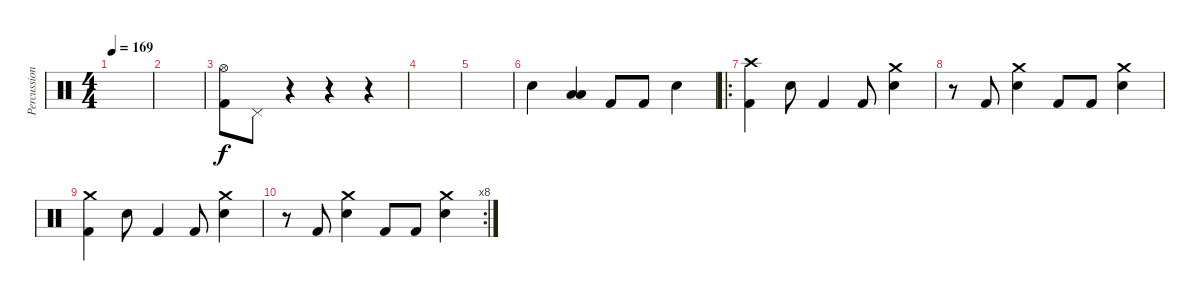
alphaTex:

\track ("Percussion" "Percussion") {instrument percussion}
\staff {score}
\articulation defaults
\ts (4 4)
\tempo 169
\clef neutral
\ks c
|
|
("Kick (hit) 2" "Hi-Hat (open)").8 "Pedal Hi-Hat (hit)".8 r.4 r.4 r.4 |
|
|
"Snare (hit) 2".4 ("Low Tom (hit)" "Low Tom (hit)").4 "Kick (hit) 2".8 "Kick (hit) 2".8 "Snare (hit) 2".4 |
\ro
("Crash high (hit)" "Kick (hit) 2").4 "Snare (hit) 2".8 "Kick (hit) 2".4 "Kick (hit) 2".8 ("Snare (hit) 2" "Crash medium (hit)").4 |
r.8 "Kick (hit) 2".8 ("Snare (hit) 2" "Crash medium (hit)").4 "Kick (hit) 2".8 "Kick (hit) 2".8 ("Snare (hit) 2" "Crash medium (hit)").4 |
("Crash medium (hit)" "Kick (hit) 2").4 "Snare (hit) 2".8 "Kick (hit) 2".4 "Kick (hit) 2".8 ("Snare (hit) 2" "Crash medium (hit)").4 |
\rc 8
r.8 "Kick (hit) 2".8 ("Snare (hit) 2" "Crash medium (hit)").4 "Kick (hit) 2".8 "Kick (hit) 2".8 ("Snare (hit) 2" "Crash medium (hit)").4
